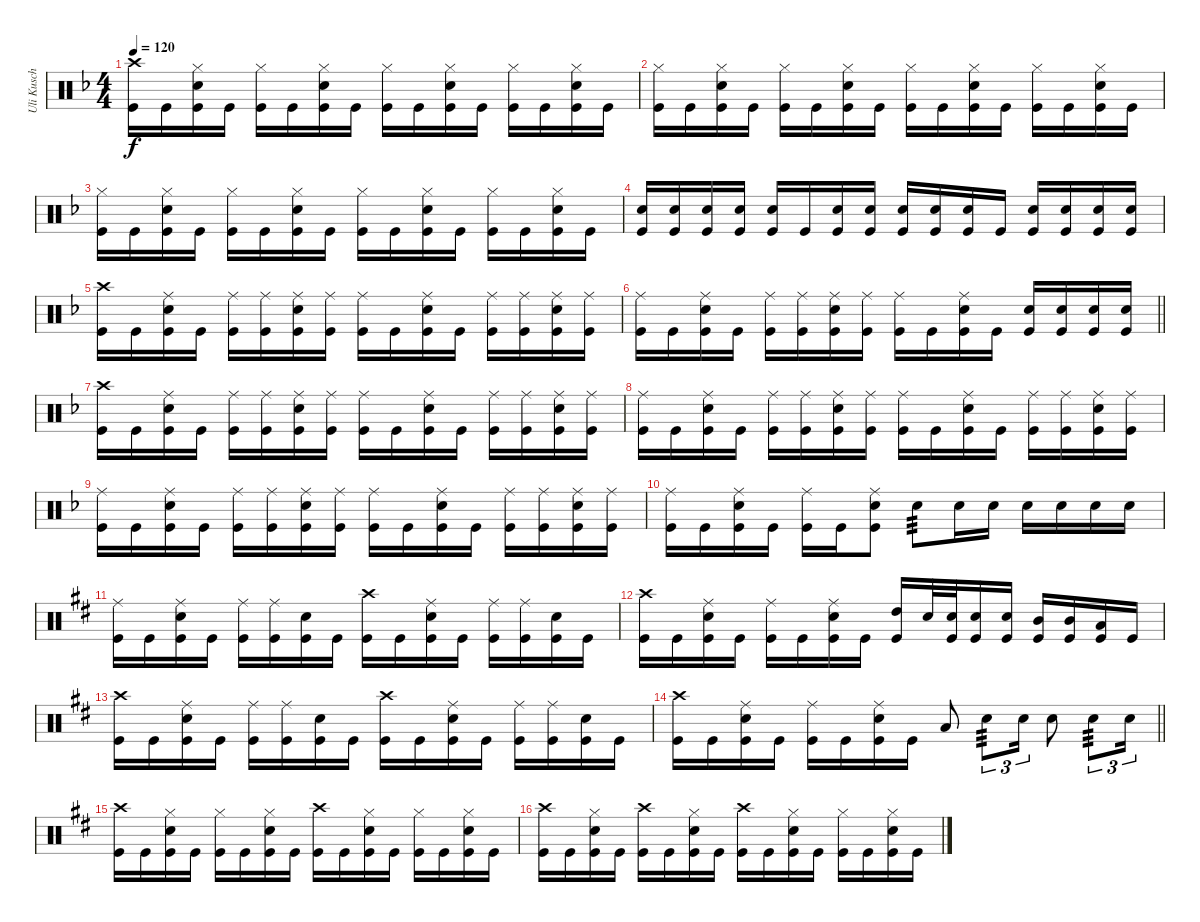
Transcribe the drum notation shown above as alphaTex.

\track ("Uli Kusch" "Uli Kusch") {instrument percussion}
\staff {score}
\articulation defaults
\ts (4 4)
\tempo 120
\clef neutral
\ks dminor
("Crash high (hit)" "Kick (hit)").16{dy f} "Kick (hit)".16 ("Hi-Hat (closed)" "Snare (hit) 2" "Kick (hit)").16 "Kick (hit)".16 ("Hi-Hat (closed)" "Kick (hit)").16 "Kick (hit)".16 ("Hi-Hat (closed)" "Snare (hit) 2" "Kick (hit)").16 "Kick (hit)".16 ("Hi-Hat (closed)" "Kick (hit)").16 "Kick (hit)".16 ("Hi-Hat (closed)" "Snare (hit) 2" "Kick (hit)").16 "Kick (hit)".16 ("Hi-Hat (closed)" "Kick (hit)").16 "Kick (hit)".16 ("Hi-Hat (closed)" "Snare (hit) 2" "Kick (hit)").16 "Kick (hit)".16 |
("Hi-Hat (closed)" "Kick (hit)").16 "Kick (hit)".16 ("Hi-Hat (closed)" "Snare (hit) 2" "Kick (hit)").16 "Kick (hit)".16 ("Hi-Hat (closed)" "Kick (hit)").16 "Kick (hit)".16 ("Hi-Hat (closed)" "Snare (hit) 2" "Kick (hit)").16 "Kick (hit)".16 ("Hi-Hat (closed)" "Kick (hit)").16 "Kick (hit)".16 ("Hi-Hat (closed)" "Snare (hit) 2" "Kick (hit)").16 "Kick (hit)".16 ("Hi-Hat (closed)" "Kick (hit)").16 "Kick (hit)".16 ("Hi-Hat (closed)" "Snare (hit) 2" "Kick (hit)").16 "Kick (hit)".16 |
("Hi-Hat (closed)" "Kick (hit)").16 "Kick (hit)".16 ("Hi-Hat (closed)" "Snare (hit) 2" "Kick (hit)").16 "Kick (hit)".16 ("Hi-Hat (closed)" "Kick (hit)").16 "Kick (hit)".16 ("Hi-Hat (closed)" "Snare (hit) 2" "Kick (hit)").16 "Kick (hit)".16 ("Hi-Hat (closed)" "Kick (hit)").16 "Kick (hit)".16 ("Hi-Hat (closed)" "Snare (hit) 2" "Kick (hit)").16 "Kick (hit)".16 ("Hi-Hat (closed)" "Kick (hit)").16 "Kick (hit)".16 ("Hi-Hat (closed)" "Snare (hit) 2" "Kick (hit)").16 "Kick (hit)".16 |
("Snare (hit) 2" "Kick (hit)").16 ("Snare (hit) 2" "Kick (hit)").16 ("Snare (hit) 2" "Kick (hit)").16 ("Snare (hit) 2" "Kick (hit)").16 ("Snare (hit) 2" "Kick (hit)").16 "Kick (hit)".16 ("Snare (hit) 2" "Kick (hit)").16 ("Snare (hit) 2" "Kick (hit)").16 ("Snare (hit) 2" "Kick (hit)").16 ("Snare (hit) 2" "Kick (hit)").16 ("Snare (hit) 2" "Kick (hit)").16 "Kick (hit)".16 ("Snare (hit) 2" "Kick (hit)").16 ("Snare (hit) 2" "Kick (hit)").16 ("Snare (hit) 2" "Kick (hit)").16 ("Snare (hit) 2" "Kick (hit)").16 |
("Crash high (hit)" "Kick (hit)").16 "Kick (hit)".16 ("Ride (middle)" "Snare (hit) 2" "Kick (hit)").16 "Kick (hit)".16 ("Ride (middle)" "Kick (hit)").16 ("Ride (middle)" "Kick (hit)").16 ("Ride (middle)" "Snare (hit) 2" "Kick (hit)").16 ("Ride (middle)" "Kick (hit)").16 ("Ride (middle)" "Kick (hit)").16 "Kick (hit)".16 ("Ride (middle)" "Snare (hit) 2" "Kick (hit)").16 "Kick (hit)".16 ("Ride (middle)" "Kick (hit)").16 ("Ride (middle)" "Kick (hit)").16 ("Ride (middle)" "Snare (hit) 2" "Kick (hit)").16 ("Ride (middle)" "Kick (hit)").16 |
\barLineRight lightlight
("Ride (middle)" "Kick (hit)").16 "Kick (hit)".16 ("Ride (middle)" "Snare (hit) 2" "Kick (hit)").16 "Kick (hit)".16 ("Ride (middle)" "Kick (hit)").16 ("Ride (middle)" "Kick (hit)").16 ("Ride (middle)" "Snare (hit) 2" "Kick (hit)").16 ("Ride (middle)" "Kick (hit)").16 ("Ride (middle)" "Kick (hit)").16 "Kick (hit)".16 ("Ride (middle)" "Snare (hit) 2" "Kick (hit)").16 "Kick (hit)".16 ("Snare (hit) 2" "Kick (hit)").16 ("Snare (hit) 2" "Kick (hit)").16 ("Snare (hit) 2" "Kick (hit)").16 ("Snare (hit) 2" "Kick (hit)").16 |
("Crash high (hit)" "Kick (hit)").16 "Kick (hit)".16 ("Ride (middle)" "Snare (hit) 2" "Kick (hit)").16 "Kick (hit)".16 ("Ride (middle)" "Kick (hit)").16 ("Ride (middle)" "Kick (hit)").16 ("Ride (middle)" "Snare (hit) 2" "Kick (hit)").16 ("Ride (middle)" "Kick (hit)").16 ("Ride (middle)" "Kick (hit)").16 "Kick (hit)".16 ("Ride (middle)" "Snare (hit) 2" "Kick (hit)").16 "Kick (hit)".16 ("Ride (middle)" "Kick (hit)").16 ("Ride (middle)" "Kick (hit)").16 ("Ride (middle)" "Snare (hit) 2" "Kick (hit)").16 ("Ride (middle)" "Kick (hit)").16 |
("Ride (middle)" "Kick (hit)").16 "Kick (hit)".16 ("Ride (middle)" "Snare (hit) 2" "Kick (hit)").16 "Kick (hit)".16 ("Ride (middle)" "Kick (hit)").16 ("Ride (middle)" "Kick (hit)").16 ("Ride (middle)" "Snare (hit) 2" "Kick (hit)").16 ("Ride (middle)" "Kick (hit)").16 ("Ride (middle)" "Kick (hit)").16 "Kick (hit)".16 ("Ride (middle)" "Snare (hit) 2" "Kick (hit)").16 "Kick (hit)".16 ("Ride (middle)" "Kick (hit)").16 ("Ride (middle)" "Kick (hit)").16 ("Ride (middle)" "Snare (hit) 2" "Kick (hit)").16 ("Ride (middle)" "Kick (hit)").16 |
("Ride (middle)" "Kick (hit)").16 "Kick (hit)".16 ("Ride (middle)" "Snare (hit) 2" "Kick (hit)").16 "Kick (hit)".16 ("Ride (middle)" "Kick (hit)").16 ("Ride (middle)" "Kick (hit)").16 ("Ride (middle)" "Snare (hit) 2" "Kick (hit)").16 ("Ride (middle)" "Kick (hit)").16 ("Ride (middle)" "Kick (hit)").16 "Kick (hit)".16 ("Ride (middle)" "Snare (hit) 2" "Kick (hit)").16 "Kick (hit)".16 ("Ride (middle)" "Kick (hit)").16 ("Ride (middle)" "Kick (hit)").16 ("Ride (middle)" "Snare (hit) 2" "Kick (hit)").16 ("Ride (middle)" "Kick (hit)").16 |
("Ride (middle)" "Kick (hit)").16 "Kick (hit)".16 ("Ride (middle)" "Snare (hit) 2" "Kick (hit)").16 "Kick (hit)".16 ("Ride (middle)" "Kick (hit)").16 "Kick (hit)".16 ("Ride (middle)" "Snare (hit) 2" "Kick (hit)").8 "Snare (hit) 2".8{tp 3} "Snare (hit) 2".16 "Snare (hit) 2".16 "Snare (hit) 2".16 "Snare (hit) 2".16 "Snare (hit) 2".16 "Snare (hit) 2".16 |
\ks d
("Ride (middle)" "Kick (hit)").16 "Kick (hit)".16 ("Ride (middle)" "Snare (hit) 2" "Kick (hit)").16 "Kick (hit)".16 ("Ride (middle)" "Kick (hit)").16 ("Ride (middle)" "Kick (hit)").16 ("Snare (hit) 2" "Kick (hit)").16 "Kick (hit)".16 ("Crash high (hit)" "Kick (hit)").16 "Kick (hit)".16 ("Ride (middle)" "Snare (hit) 2" "Kick (hit)").16 "Kick (hit)".16 ("Ride (middle)" "Kick (hit)").16 ("Ride (middle)" "Kick (hit)").16 ("Snare (hit) 2" "Kick (hit)").16 "Kick (hit)".16 |
("Crash high (hit)" "Kick (hit)").16 "Kick (hit)".16 ("Ride (middle)" "Snare (hit) 2" "Kick (hit)").16 "Kick (hit)".16 ("Ride (middle)" "Kick (hit)").16 "Kick (hit)".16 ("Ride (middle)" "Snare (hit) 2" "Kick (hit)").16 "Kick (hit)".16 ("High Tom (hit)" "Kick (hit)").16 "Snare (hit) 2".32 ("Snare (hit) 2" "Kick (hit)").32 ("Snare (hit) 2" "Kick (hit)").16 ("Snare (hit) 2" "Kick (hit)").16 ("Mid Tom (hit)" "Kick (hit)").16 ("Mid Tom (hit)" "Kick (hit)").16 ("Low Tom (hit)" "Kick (hit)").16 "Kick (hit)".16 |
("Crash high (hit)" "Kick (hit)").16 "Kick (hit)".16 ("Ride (middle)" "Snare (hit) 2" "Kick (hit)").16 "Kick (hit)".16 ("Ride (middle)" "Kick (hit)").16 ("Ride (middle)" "Kick (hit)").16 ("Snare (hit) 2" "Kick (hit)").16 "Kick (hit)".16 ("Crash high (hit)" "Kick (hit)").16 "Kick (hit)".16 ("Ride (middle)" "Snare (hit) 2" "Kick (hit)").16 "Kick (hit)".16 ("Ride (middle)" "Kick (hit)").16 ("Ride (middle)" "Kick (hit)").16 ("Snare (hit) 2" "Kick (hit)").16 "Kick (hit)".16 |
\barLineRight lightlight
("Crash high (hit)" "Kick (hit)").16 "Kick (hit)".16 ("Ride (middle)" "Snare (hit) 2" "Kick (hit)").16 "Kick (hit)".16 ("Ride (middle)" "Kick (hit)").16 "Kick (hit)".16 ("Ride (middle)" "Snare (hit) 2" "Kick (hit)").16 "Kick (hit)".16 "Low Tom (hit)".8 "Snare (hit) 2".8{tu (3 2) tp 3} "Snare (hit) 2".16{tu (3 2)} "Snare (hit) 2".8 "Snare (hit) 2".8{tu (3 2) tp 3} "Snare (hit) 2".16{tu (3 2)} |
("Crash high (hit)" "Kick (hit)").16 "Kick (hit)".16 ("Hi-Hat (closed)" "Snare (hit) 2" "Kick (hit)").16 "Kick (hit)".16 ("Hi-Hat (closed)" "Kick (hit)").16 "Kick (hit)".16 ("Hi-Hat (closed)" "Snare (hit) 2" "Kick (hit)").16 "Kick (hit)".16 ("Crash high (hit)" "Kick (hit)").16 "Kick (hit)".16 ("Hi-Hat (closed)" "Snare (hit) 2" "Kick (hit)").16 "Kick (hit)".16 ("Hi-Hat (closed)" "Kick (hit)").16 "Kick (hit)".16 ("Hi-Hat (closed)" "Snare (hit) 2" "Kick (hit)").16 "Kick (hit)".16 |
("Crash high (hit)" "Kick (hit)").16 "Kick (hit)".16 ("Hi-Hat (closed)" "Snare (hit) 2" "Kick (hit)").16 "Kick (hit)".16 ("Crash high (hit)" "Kick (hit)").16 "Kick (hit)".16 ("Hi-Hat (closed)" "Snare (hit) 2" "Kick (hit)").16 "Kick (hit)".16 ("Crash high (hit)" "Kick (hit)").16 "Kick (hit)".16 ("Hi-Hat (closed)" "Snare (hit) 2" "Kick (hit)").16 "Kick (hit)".16 ("Hi-Hat (closed)" "Kick (hit)").16 "Kick (hit)".16 ("Hi-Hat (closed)" "Snare (hit) 2" "Kick (hit)").16 "Kick (hit)".16
